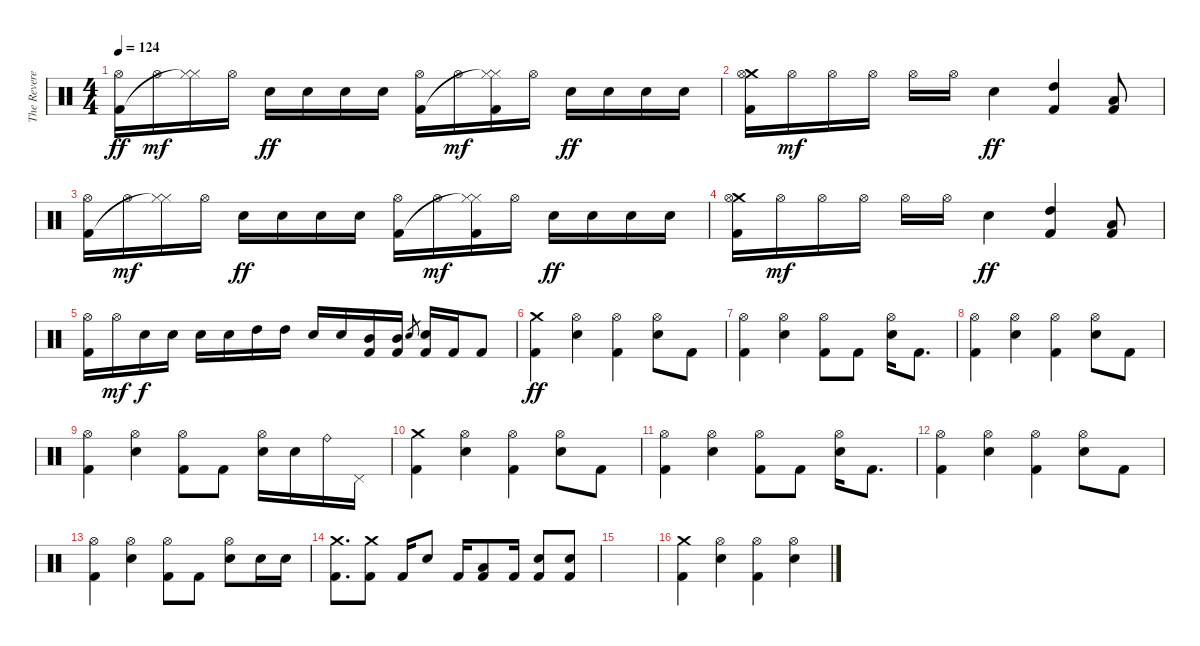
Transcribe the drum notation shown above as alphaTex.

\track ("The Reverend" "The Revere") {instrument percussion}
\staff {score}
\articulation defaults
\ts (4 4)
\tempo 124
\clef neutral
\ks c
("Hi-Hat (open)" "Kick (hit) 2").16{dy ff} "Hi-Hat (open)".16{dy mf} ("Hi-Hat (closed)" "Hi-Hat (closed)"{t}).16 "Hi-Hat (open)".16 "Electric Snare (hit)".16{dy ff} "Electric Snare (hit)".16 "Electric Snare (hit)".16 "Electric Snare (hit)".16 ("Hi-Hat (open)" "Kick (hit) 2").16 "Hi-Hat (open)".16{dy mf} ("Hi-Hat (closed)" "Hi-Hat (closed)"{t} "Kick (hit) 2").16 "Hi-Hat (open)".16 "Electric Snare (hit)".16{dy ff} "Electric Snare (hit)".16 "Electric Snare (hit)".16 "Electric Snare (hit)".16 |
("Crash medium (hit)" "Hi-Hat (open)" "Kick (hit) 2").16 "Hi-Hat (open)".16{dy mf} "Hi-Hat (open)".16 "Hi-Hat (open)".16 "Hi-Hat (open)".16 "Hi-Hat (open)".16 "Electric Snare (hit)".4{dy ff} ("High Tom (hit)" "Kick (hit) 2").4 ("Low Tom (hit)" "Kick (hit) 2").8 |
("Hi-Hat (open)" "Kick (hit) 2").16 "Hi-Hat (open)".16{dy mf} ("Hi-Hat (closed)" "Hi-Hat (closed)"{t}).16 "Hi-Hat (open)".16 "Electric Snare (hit)".16{dy ff} "Electric Snare (hit)".16 "Electric Snare (hit)".16 "Electric Snare (hit)".16 ("Hi-Hat (open)" "Kick (hit) 2").16 "Hi-Hat (open)".16{dy mf} ("Hi-Hat (closed)" "Hi-Hat (closed)"{t} "Kick (hit) 2").16 "Hi-Hat (open)".16 "Electric Snare (hit)".16{dy ff} "Electric Snare (hit)".16 "Electric Snare (hit)".16 "Electric Snare (hit)".16 |
("Crash medium (hit)" "Hi-Hat (open)" "Kick (hit) 2").16 "Hi-Hat (open)".16{dy mf} "Hi-Hat (open)".16 "Hi-Hat (open)".16 "Hi-Hat (open)".16 "Hi-Hat (open)".16 "Electric Snare (hit)".4{dy ff} ("High Tom (hit)" "Kick (hit) 2").4 ("Low Tom (hit)" "Kick (hit) 2").8 |
("Hi-Hat (open)" "Kick (hit) 2").16 "Hi-Hat (open)".16{dy mf} "Electric Snare (hit)".16{dy f} "Electric Snare (hit)".16 "Electric Snare (hit)".16 "Electric Snare (hit)".16 "High Tom (hit)".16 "High Tom (hit)".16 "Electric Snare (hit)".16 "Electric Snare (hit)".16 ("Mid Tom (hit)" "Kick (hit) 2").16 ("Mid Tom (hit)" "Kick (hit) 2").16 "Electric Snare (hit)".8{gr} ("Electric Snare (hit)" "Kick (hit) 2").16 "Kick (hit) 2".16 "Kick (hit) 2".8 |
("Crash medium (hit)" "Kick (hit) 2").4{dy ff} ("Hi-Hat (open)" "Electric Snare (hit)").4 ("Hi-Hat (open)" "Kick (hit) 2").4 ("Hi-Hat (open)" "Electric Snare (hit)").8 "Kick (hit) 2".8 |
("Hi-Hat (open)" "Kick (hit) 2").4 ("Hi-Hat (open)" "Electric Snare (hit)").4 ("Hi-Hat (open)" "Kick (hit) 2").8 "Kick (hit) 2".8 ("Hi-Hat (open)" "Electric Snare (hit)").16 "Kick (hit) 2".8{d} |
("Hi-Hat (open)" "Kick (hit) 2").4 ("Hi-Hat (open)" "Electric Snare (hit)").4 ("Hi-Hat (open)" "Kick (hit) 2").4 ("Hi-Hat (open)" "Electric Snare (hit)").8 "Kick (hit) 2".8 |
("Hi-Hat (open)" "Kick (hit) 2").4 ("Hi-Hat (open)" "Electric Snare (hit)").4 ("Hi-Hat (open)" "Kick (hit) 2").8 "Kick (hit) 2".8 ("Hi-Hat (open)" "Electric Snare (hit)").16 "Electric Snare (hit)".16 "Ride (bell)".16 "Pedal Hi-Hat (hit)".16 |
("Crash medium (hit)" "Kick (hit) 2").4 ("Hi-Hat (open)" "Electric Snare (hit)").4 ("Hi-Hat (open)" "Kick (hit) 2").4 ("Hi-Hat (open)" "Electric Snare (hit)").8 "Kick (hit) 2".8 |
("Hi-Hat (open)" "Kick (hit) 2").4 ("Hi-Hat (open)" "Electric Snare (hit)").4 ("Hi-Hat (open)" "Kick (hit) 2").8 "Kick (hit) 2".8 ("Hi-Hat (open)" "Electric Snare (hit)").16 "Kick (hit) 2".8{d} |
("Hi-Hat (open)" "Kick (hit) 2").4 ("Hi-Hat (open)" "Electric Snare (hit)").4 ("Hi-Hat (open)" "Kick (hit) 2").4 ("Hi-Hat (open)" "Electric Snare (hit)").8 "Kick (hit) 2".8 |
("Hi-Hat (open)" "Kick (hit) 2").4 ("Hi-Hat (open)" "Electric Snare (hit)").4 ("Hi-Hat (open)" "Kick (hit) 2").8 "Kick (hit) 2".8 ("Hi-Hat (open)" "Electric Snare (hit)").8 "Electric Snare (hit)".16 "Electric Snare (hit)".16 |
("Crash medium (hit)" "Kick (hit) 2").8{d} ("Crash medium (hit)" "Kick (hit) 2").8 "Kick (hit) 2".16 "Electric Snare (hit)".8 "Kick (hit) 2".16 ("Low Tom (hit)" "Kick (hit) 2").8 "Kick (hit) 2".16 ("Electric Snare (hit)" "Kick (hit) 2").8 ("Electric Snare (hit)" "Kick (hit) 2").8 |
|
("Crash medium (hit)" "Kick (hit) 2").4 ("Hi-Hat (open)" "Electric Snare (hit)").4 ("Hi-Hat (open)" "Kick (hit) 2").4 ("Hi-Hat (open)" "Electric Snare (hit)").4
